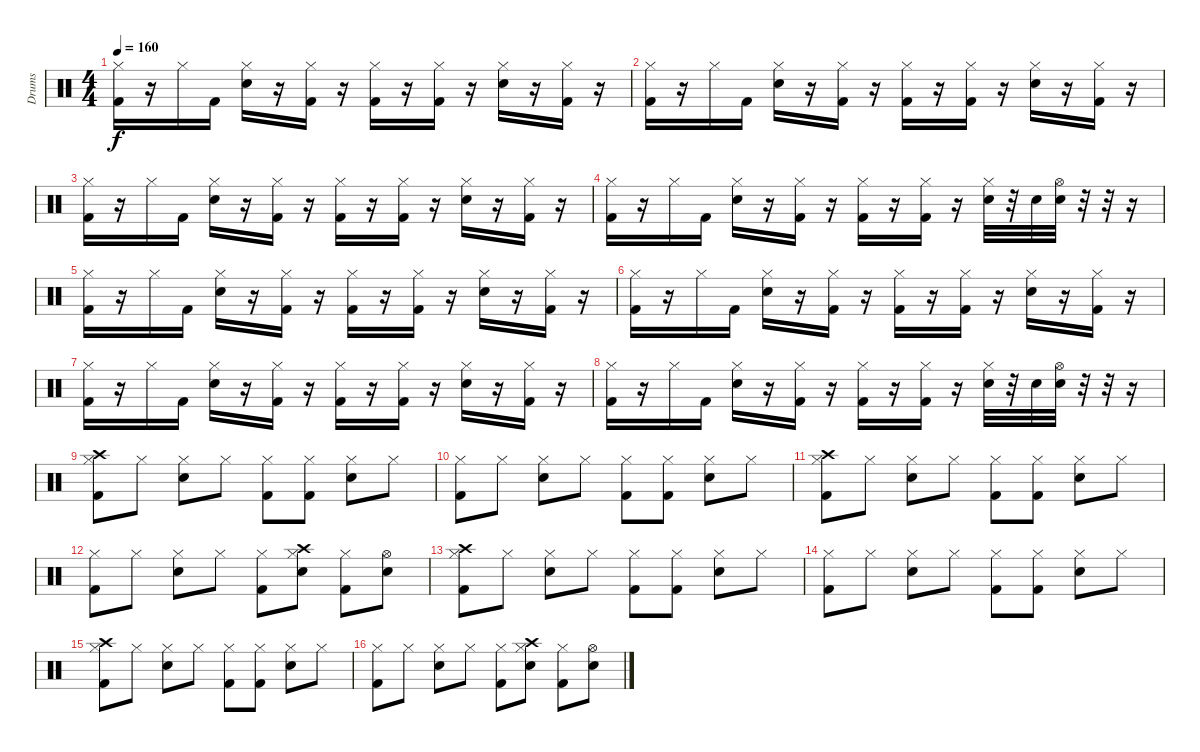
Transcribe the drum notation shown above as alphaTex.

\track ("Drums" "Drums") {instrument percussion}
\staff {score}
\articulation defaults
\ts (4 4)
\tempo 160
\clef neutral
\ks c
("Hi-Hat (closed)" "Kick (hit) 2").16{dy f} r.16 "Hi-Hat (closed)".16 "Kick (hit) 2".16 ("Hi-Hat (closed)" "Snare (hit) 2").16 r.16 ("Hi-Hat (closed)" "Kick (hit) 2").16 r.16 ("Hi-Hat (closed)" "Kick (hit) 2").16 r.16 ("Hi-Hat (closed)" "Kick (hit) 2").16 r.16 ("Hi-Hat (closed)" "Snare (hit) 2").16 r.16 ("Hi-Hat (closed)" "Kick (hit) 2").16 r.16 |
("Hi-Hat (closed)" "Kick (hit) 2").16 r.16 "Hi-Hat (closed)".16 "Kick (hit) 2".16 ("Hi-Hat (closed)" "Snare (hit) 2").16 r.16 ("Hi-Hat (closed)" "Kick (hit) 2").16 r.16 ("Hi-Hat (closed)" "Kick (hit) 2").16 r.16 ("Hi-Hat (closed)" "Kick (hit) 2").16 r.16 ("Hi-Hat (closed)" "Snare (hit) 2").16 r.16 ("Hi-Hat (closed)" "Kick (hit) 2").16 r.16 |
("Hi-Hat (closed)" "Kick (hit) 2").16 r.16 "Hi-Hat (closed)".16 "Kick (hit) 2".16 ("Hi-Hat (closed)" "Snare (hit) 2").16 r.16 ("Hi-Hat (closed)" "Kick (hit) 2").16 r.16 ("Hi-Hat (closed)" "Kick (hit) 2").16 r.16 ("Hi-Hat (closed)" "Kick (hit) 2").16 r.16 ("Hi-Hat (closed)" "Snare (hit) 2").16 r.16 ("Hi-Hat (closed)" "Kick (hit) 2").16 r.16 |
("Hi-Hat (closed)" "Kick (hit) 2").16 r.16 "Hi-Hat (closed)".16 "Kick (hit) 2".16 ("Hi-Hat (closed)" "Snare (hit) 2").16 r.16 ("Hi-Hat (closed)" "Kick (hit) 2").16 r.16 ("Hi-Hat (closed)" "Kick (hit) 2").16 r.16 ("Hi-Hat (closed)" "Kick (hit) 2").16 r.16 ("Hi-Hat (closed)" "Snare (hit) 2").32 r.32 "Snare (hit) 2".32 ("Hi-Hat (open)" "Snare (hit) 2").32 r.32 r.32 r.16 |
("Hi-Hat (closed)" "Kick (hit) 2").16 r.16 "Hi-Hat (closed)".16 "Kick (hit) 2".16 ("Hi-Hat (closed)" "Snare (hit) 2").16 r.16 ("Hi-Hat (closed)" "Kick (hit) 2").16 r.16 ("Hi-Hat (closed)" "Kick (hit) 2").16 r.16 ("Hi-Hat (closed)" "Kick (hit) 2").16 r.16 ("Hi-Hat (closed)" "Snare (hit) 2").16 r.16 ("Hi-Hat (closed)" "Kick (hit) 2").16 r.16 |
("Hi-Hat (closed)" "Kick (hit) 2").16 r.16 "Hi-Hat (closed)".16 "Kick (hit) 2".16 ("Hi-Hat (closed)" "Snare (hit) 2").16 r.16 ("Hi-Hat (closed)" "Kick (hit) 2").16 r.16 ("Hi-Hat (closed)" "Kick (hit) 2").16 r.16 ("Hi-Hat (closed)" "Kick (hit) 2").16 r.16 ("Hi-Hat (closed)" "Snare (hit) 2").16 r.16 ("Hi-Hat (closed)" "Kick (hit) 2").16 r.16 |
("Hi-Hat (closed)" "Kick (hit) 2").16 r.16 "Hi-Hat (closed)".16 "Kick (hit) 2".16 ("Hi-Hat (closed)" "Snare (hit) 2").16 r.16 ("Hi-Hat (closed)" "Kick (hit) 2").16 r.16 ("Hi-Hat (closed)" "Kick (hit) 2").16 r.16 ("Hi-Hat (closed)" "Kick (hit) 2").16 r.16 ("Hi-Hat (closed)" "Snare (hit) 2").16 r.16 ("Hi-Hat (closed)" "Kick (hit) 2").16 r.16 |
("Hi-Hat (closed)" "Kick (hit) 2").16 r.16 "Hi-Hat (closed)".16 "Kick (hit) 2".16 ("Hi-Hat (closed)" "Snare (hit) 2").16 r.16 ("Hi-Hat (closed)" "Kick (hit) 2").16 r.16 ("Hi-Hat (closed)" "Kick (hit) 2").16 r.16 ("Hi-Hat (closed)" "Kick (hit) 2").16 r.16 ("Hi-Hat (closed)" "Snare (hit) 2").32 r.32 "Snare (hit) 2".32 ("Hi-Hat (open)" "Snare (hit) 2").32 r.32 r.32 r.16 |
("Crash high (hit)" "Hi-Hat (closed)" "Kick (hit) 2").8 "Hi-Hat (closed)".8 ("Hi-Hat (closed)" "Snare (hit) 2").8 "Hi-Hat (closed)".8 ("Hi-Hat (closed)" "Kick (hit) 2").8 ("Hi-Hat (closed)" "Kick (hit) 2").8 ("Hi-Hat (closed)" "Snare (hit) 2").8 "Hi-Hat (closed)".8 |
("Hi-Hat (closed)" "Kick (hit) 2").8 "Hi-Hat (closed)".8 ("Hi-Hat (closed)" "Snare (hit) 2").8 "Hi-Hat (closed)".8 ("Hi-Hat (closed)" "Kick (hit) 2").8 ("Hi-Hat (closed)" "Kick (hit) 2").8 ("Hi-Hat (closed)" "Snare (hit) 2").8 "Hi-Hat (closed)".8 |
("Crash high (hit)" "Hi-Hat (closed)" "Kick (hit) 2").8 "Hi-Hat (closed)".8 ("Hi-Hat (closed)" "Snare (hit) 2").8 "Hi-Hat (closed)".8 ("Hi-Hat (closed)" "Kick (hit) 2").8 ("Hi-Hat (closed)" "Kick (hit) 2").8 ("Hi-Hat (closed)" "Snare (hit) 2").8 "Hi-Hat (closed)".8 |
("Hi-Hat (closed)" "Kick (hit) 2").8 "Hi-Hat (closed)".8 ("Hi-Hat (closed)" "Snare (hit) 2").8 "Hi-Hat (closed)".8 ("Hi-Hat (closed)" "Kick (hit) 2").8 ("Crash high (hit)" "Hi-Hat (closed)" "Snare (hit) 2").8 ("Hi-Hat (closed)" "Kick (hit) 2").8 ("Hi-Hat (open)" "Snare (hit) 2").8 |
("Crash high (hit)" "Hi-Hat (closed)" "Kick (hit) 2").8 "Hi-Hat (closed)".8 ("Hi-Hat (closed)" "Snare (hit) 2").8 "Hi-Hat (closed)".8 ("Hi-Hat (closed)" "Kick (hit) 2").8 ("Hi-Hat (closed)" "Kick (hit) 2").8 ("Hi-Hat (closed)" "Snare (hit) 2").8 "Hi-Hat (closed)".8 |
("Hi-Hat (closed)" "Kick (hit) 2").8 "Hi-Hat (closed)".8 ("Hi-Hat (closed)" "Snare (hit) 2").8 "Hi-Hat (closed)".8 ("Hi-Hat (closed)" "Kick (hit) 2").8 ("Hi-Hat (closed)" "Kick (hit) 2").8 ("Hi-Hat (closed)" "Snare (hit) 2").8 "Hi-Hat (closed)".8 |
("Crash high (hit)" "Hi-Hat (closed)" "Kick (hit) 2").8 "Hi-Hat (closed)".8 ("Hi-Hat (closed)" "Snare (hit) 2").8 "Hi-Hat (closed)".8 ("Hi-Hat (closed)" "Kick (hit) 2").8 ("Hi-Hat (closed)" "Kick (hit) 2").8 ("Hi-Hat (closed)" "Snare (hit) 2").8 "Hi-Hat (closed)".8 |
("Hi-Hat (closed)" "Kick (hit) 2").8 "Hi-Hat (closed)".8 ("Hi-Hat (closed)" "Snare (hit) 2").8 "Hi-Hat (closed)".8 ("Hi-Hat (closed)" "Kick (hit) 2").8 ("Crash high (hit)" "Hi-Hat (closed)" "Snare (hit) 2").8 ("Hi-Hat (closed)" "Kick (hit) 2").8 ("Hi-Hat (open)" "Snare (hit) 2").8
